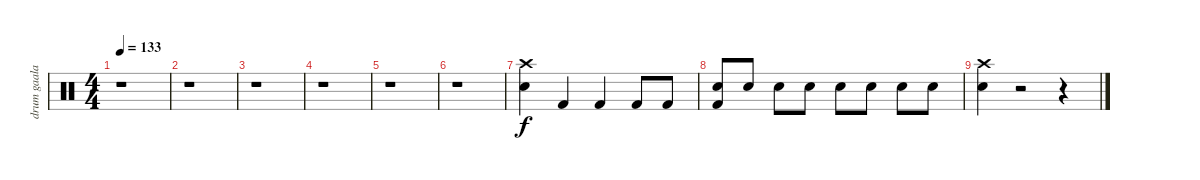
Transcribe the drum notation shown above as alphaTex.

\track ("drum gaalaas" "drum gaala") {instrument percussion}
\staff {score}
\articulation defaults
\ts (4 4)
\tempo 133
\clef neutral
\ks c
r.1{dy f} |
r.1 |
r.1 |
r.1 |
r.1 |
r.1 |
("Crash high (hit)" "Snare (hit) 2").4 "Kick (hit) 2".4 "Kick (hit) 2".4 "Kick (hit) 2".8 "Kick (hit) 2".8 |
("Snare (hit) 2" "Kick (hit) 2").8{volume 7} "Snare (hit) 2".8{volume 13} "Snare (hit) 2".8 "Snare (hit) 2".8 "Snare (hit) 2".8 "Snare (hit) 2".8 "Snare (hit) 2".8 "Snare (hit) 2".8 |
("Crash high (hit)" "Snare (hit) 2").4 r.2 r.4
